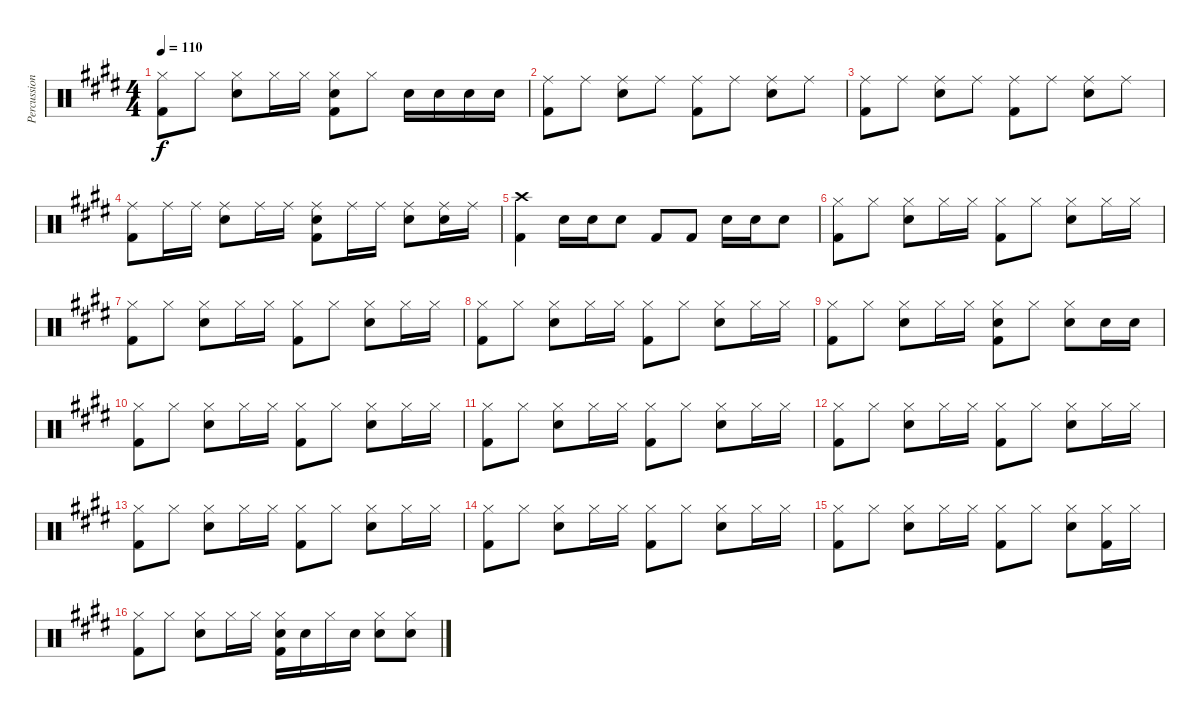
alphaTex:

\track ("Percussion" "Percussion") {instrument percussion}
\staff {score}
\articulation defaults
\ts (4 4)
\tempo 110
\clef neutral
\ks e
("Hi-Hat (closed)" "Kick (hit) 2").8{dy f} "Hi-Hat (closed)".8 ("Hi-Hat (closed)" "Snare (hit) 2").8 "Hi-Hat (closed)".16 "Hi-Hat (closed)".16 ("Hi-Hat (closed)" "Snare (hit) 2" "Kick (hit) 2").8 "Hi-Hat (closed)".8 "Snare (hit) 2".16 "Snare (hit) 2".16 "Snare (hit) 2".16 "Snare (hit) 2".16 |
("Ride (middle)" "Kick (hit) 2").8 "Ride (middle)".8 ("Ride (middle)" "Snare (hit) 2").8 "Ride (middle)".8 ("Ride (middle)" "Kick (hit) 2").8 "Ride (middle)".8 ("Ride (middle)" "Snare (hit) 2").8 "Ride (middle)".8 |
("Ride (middle)" "Kick (hit) 2").8 "Ride (middle)".8 ("Ride (middle)" "Snare (hit) 2").8 "Ride (middle)".8 ("Ride (middle)" "Kick (hit) 2").8 "Ride (middle)".8 ("Ride (middle)" "Snare (hit) 2").8 "Ride (middle)".8 |
("Ride (middle)" "Kick (hit) 2").8 "Ride (middle)".16 "Ride (middle)".16 ("Ride (middle)" "Snare (hit) 2").8 "Ride (middle)".16 "Ride (middle)".16 ("Ride (middle)" "Snare (hit) 2" "Kick (hit) 2").8 "Ride (middle)".16 "Ride (middle)".16 ("Ride (middle)" "Snare (hit) 2").8 ("Ride (middle)" "Snare (hit) 2").16 "Ride (middle)".16 |
("Crash high (hit)" "Kick (hit) 2").4 "Snare (hit) 2".16 "Snare (hit) 2".16 "Snare (hit) 2".8 "Kick (hit) 2".8 "Kick (hit) 2".8 "Snare (hit) 2".16 "Snare (hit) 2".16 "Snare (hit) 2".8 |
("Hi-Hat (closed)" "Kick (hit) 2").8 "Hi-Hat (closed)".8 ("Hi-Hat (closed)" "Snare (hit) 2").8 "Hi-Hat (closed)".16 "Hi-Hat (closed)".16 ("Hi-Hat (closed)" "Kick (hit) 2").8 "Hi-Hat (closed)".8 ("Hi-Hat (closed)" "Snare (hit) 2").8 "Hi-Hat (closed)".16 "Hi-Hat (closed)".16 |
("Hi-Hat (closed)" "Kick (hit) 2").8 "Hi-Hat (closed)".8 ("Hi-Hat (closed)" "Snare (hit) 2").8 "Hi-Hat (closed)".16 "Hi-Hat (closed)".16 ("Hi-Hat (closed)" "Kick (hit) 2").8 "Hi-Hat (closed)".8 ("Hi-Hat (closed)" "Snare (hit) 2").8 "Hi-Hat (closed)".16 "Hi-Hat (closed)".16 |
("Hi-Hat (closed)" "Kick (hit) 2").8 "Hi-Hat (closed)".8 ("Hi-Hat (closed)" "Snare (hit) 2").8 "Hi-Hat (closed)".16 "Hi-Hat (closed)".16 ("Hi-Hat (closed)" "Kick (hit) 2").8 "Hi-Hat (closed)".8 ("Hi-Hat (closed)" "Snare (hit) 2").8 "Hi-Hat (closed)".16 "Hi-Hat (closed)".16 |
("Hi-Hat (closed)" "Kick (hit) 2").8 "Hi-Hat (closed)".8 ("Hi-Hat (closed)" "Snare (hit) 2").8 "Hi-Hat (closed)".16 "Hi-Hat (closed)".16 ("Hi-Hat (closed)" "Snare (hit) 2" "Kick (hit) 2").8 "Hi-Hat (closed)".8 ("Hi-Hat (closed)" "Snare (hit) 2").8 "Snare (hit) 2".16 "Snare (hit) 2".16 |
("Hi-Hat (closed)" "Kick (hit) 2").8 "Hi-Hat (closed)".8 ("Hi-Hat (closed)" "Snare (hit) 2").8 "Hi-Hat (closed)".16 "Hi-Hat (closed)".16 ("Hi-Hat (closed)" "Kick (hit) 2").8 "Hi-Hat (closed)".8 ("Hi-Hat (closed)" "Snare (hit) 2").8 "Hi-Hat (closed)".16 "Hi-Hat (closed)".16 |
("Hi-Hat (closed)" "Kick (hit) 2").8 "Hi-Hat (closed)".8 ("Hi-Hat (closed)" "Snare (hit) 2").8 "Hi-Hat (closed)".16 "Hi-Hat (closed)".16 ("Hi-Hat (closed)" "Kick (hit) 2").8 "Hi-Hat (closed)".8 ("Hi-Hat (closed)" "Snare (hit) 2").8 "Hi-Hat (closed)".16 "Hi-Hat (closed)".16 |
("Hi-Hat (closed)" "Kick (hit) 2").8 "Hi-Hat (closed)".8 ("Hi-Hat (closed)" "Snare (hit) 2").8 "Hi-Hat (closed)".16 "Hi-Hat (closed)".16 ("Hi-Hat (closed)" "Kick (hit) 2").8 "Hi-Hat (closed)".8 ("Hi-Hat (closed)" "Snare (hit) 2").8 "Hi-Hat (closed)".16 "Hi-Hat (closed)".16 |
("Hi-Hat (closed)" "Kick (hit) 2").8 "Hi-Hat (closed)".8 ("Hi-Hat (closed)" "Snare (hit) 2").8 "Hi-Hat (closed)".16 "Hi-Hat (closed)".16 ("Hi-Hat (closed)" "Kick (hit) 2").8 "Hi-Hat (closed)".8 ("Hi-Hat (closed)" "Snare (hit) 2").8 "Hi-Hat (closed)".16 "Hi-Hat (closed)".16 |
("Hi-Hat (closed)" "Kick (hit) 2").8 "Hi-Hat (closed)".8 ("Hi-Hat (closed)" "Snare (hit) 2").8 "Hi-Hat (closed)".16 "Hi-Hat (closed)".16 ("Hi-Hat (closed)" "Kick (hit) 2").8 "Hi-Hat (closed)".8 ("Hi-Hat (closed)" "Snare (hit) 2").8 "Hi-Hat (closed)".16 "Hi-Hat (closed)".16 |
("Hi-Hat (closed)" "Kick (hit) 2").8 "Hi-Hat (closed)".8 ("Hi-Hat (closed)" "Snare (hit) 2").8 "Hi-Hat (closed)".16 "Hi-Hat (closed)".16 ("Hi-Hat (closed)" "Kick (hit) 2").8 "Hi-Hat (closed)".8 ("Hi-Hat (closed)" "Snare (hit) 2").8 ("Hi-Hat (closed)" "Kick (hit) 2").16 "Hi-Hat (closed)".16 |
("Hi-Hat (closed)" "Kick (hit) 2").8 "Hi-Hat (closed)".8 ("Hi-Hat (closed)" "Snare (hit) 2").8 "Hi-Hat (closed)".16 "Hi-Hat (closed)".16 ("Hi-Hat (closed)" "Snare (hit) 2" "Kick (hit) 2").16 "Snare (hit) 2".16 "Hi-Hat (closed)".16 "Snare (hit) 2".16 ("Hi-Hat (closed)" "Snare (hit) 2").8 ("Hi-Hat (closed)" "Snare (hit) 2").8
